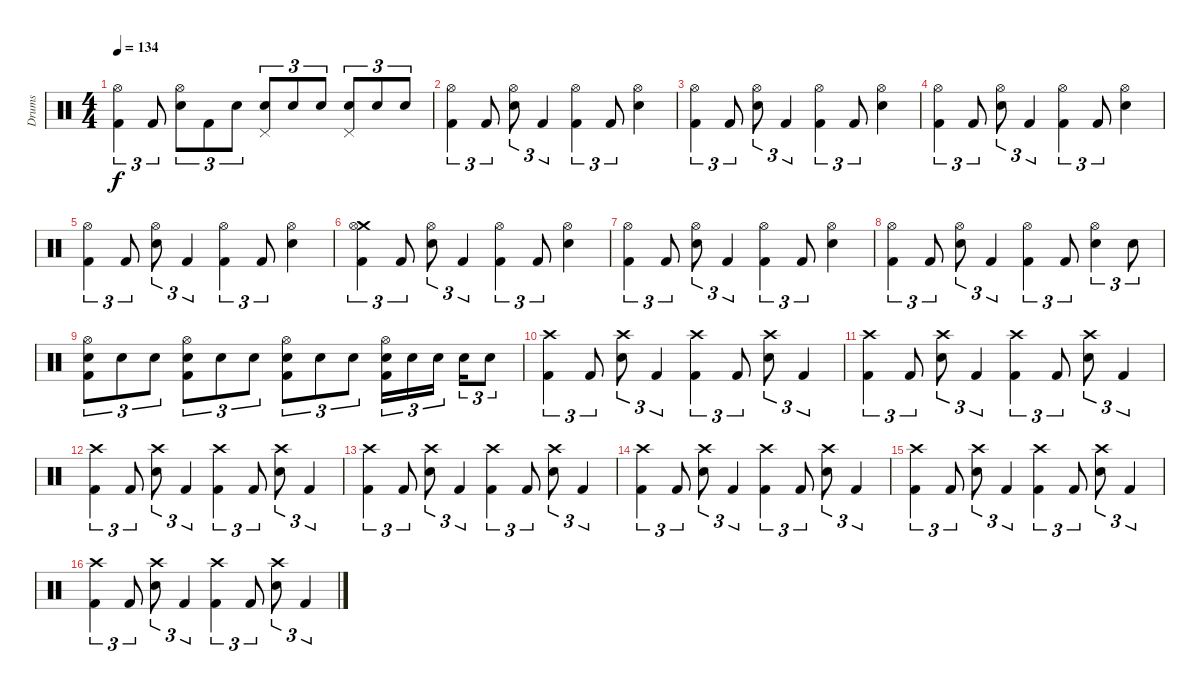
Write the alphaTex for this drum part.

\track ("Drums" "Drums") {instrument percussion}
\staff {score}
\articulation defaults
\ts (4 4)
\tempo 134
\clef neutral
\ks c
("Hi-Hat (open)" "Kick (hit) 2").4{tu (3 2) dy f} "Kick (hit) 2".8{tu (3 2)} ("Hi-Hat (open)" "Electric Snare (hit)").8{tu (3 2)} "Kick (hit) 2".8{tu (3 2)} "Electric Snare (hit)".8{tu (3 2)} ("Pedal Hi-Hat (hit)" "Electric Snare (hit)").8{tu (3 2)} "Electric Snare (hit)".8{tu (3 2)} "Electric Snare (hit)".8{tu (3 2)} ("Pedal Hi-Hat (hit)" "Electric Snare (hit)").8{tu (3 2)} "Electric Snare (hit)".8{tu (3 2)} "Electric Snare (hit)".8{tu (3 2)} |
("Hi-Hat (open)" "Kick (hit) 2").4{tu (3 2)} "Kick (hit) 2".8{tu (3 2)} ("Hi-Hat (open)" "Electric Snare (hit)").8{tu (3 2)} "Kick (hit) 2".4{tu (3 2)} ("Hi-Hat (open)" "Kick (hit) 2").4{tu (3 2)} "Kick (hit) 2".8{tu (3 2)} ("Hi-Hat (open)" "Electric Snare (hit)").4 |
("Hi-Hat (open)" "Kick (hit) 2").4{tu (3 2)} "Kick (hit) 2".8{tu (3 2)} ("Hi-Hat (open)" "Electric Snare (hit)").8{tu (3 2)} "Kick (hit) 2".4{tu (3 2)} ("Hi-Hat (open)" "Kick (hit) 2").4{tu (3 2)} "Kick (hit) 2".8{tu (3 2)} ("Hi-Hat (open)" "Electric Snare (hit)").4 |
("Hi-Hat (open)" "Kick (hit) 2").4{tu (3 2)} "Kick (hit) 2".8{tu (3 2)} ("Hi-Hat (open)" "Electric Snare (hit)").8{tu (3 2)} "Kick (hit) 2".4{tu (3 2)} ("Hi-Hat (open)" "Kick (hit) 2").4{tu (3 2)} "Kick (hit) 2".8{tu (3 2)} ("Hi-Hat (open)" "Electric Snare (hit)").4 |
("Hi-Hat (open)" "Kick (hit) 2").4{tu (3 2)} "Kick (hit) 2".8{tu (3 2)} ("Hi-Hat (open)" "Electric Snare (hit)").8{tu (3 2)} "Kick (hit) 2".4{tu (3 2)} ("Hi-Hat (open)" "Kick (hit) 2").4{tu (3 2)} "Kick (hit) 2".8{tu (3 2)} ("Hi-Hat (open)" "Electric Snare (hit)").4 |
("Crash medium (hit)" "Hi-Hat (open)" "Kick (hit) 2").4{tu (3 2)} "Kick (hit) 2".8{tu (3 2)} ("Hi-Hat (open)" "Electric Snare (hit)").8{tu (3 2)} "Kick (hit) 2".4{tu (3 2)} ("Hi-Hat (open)" "Kick (hit) 2").4{tu (3 2)} "Kick (hit) 2".8{tu (3 2)} ("Hi-Hat (open)" "Electric Snare (hit)").4 |
("Hi-Hat (open)" "Kick (hit) 2").4{tu (3 2)} "Kick (hit) 2".8{tu (3 2)} ("Hi-Hat (open)" "Electric Snare (hit)").8{tu (3 2)} "Kick (hit) 2".4{tu (3 2)} ("Hi-Hat (open)" "Kick (hit) 2").4{tu (3 2)} "Kick (hit) 2".8{tu (3 2)} ("Hi-Hat (open)" "Electric Snare (hit)").4 |
("Hi-Hat (open)" "Kick (hit) 2").4{tu (3 2)} "Kick (hit) 2".8{tu (3 2)} ("Hi-Hat (open)" "Electric Snare (hit)").8{tu (3 2)} "Kick (hit) 2".4{tu (3 2)} ("Hi-Hat (open)" "Kick (hit) 2").4{tu (3 2)} "Kick (hit) 2".8{tu (3 2)} ("Hi-Hat (open)" "Electric Snare (hit)").4{tu (3 2)} "Electric Snare (hit)".8{tu (3 2)} |
("Hi-Hat (open)" "Electric Snare (hit)" "Kick (hit) 2").8{tu (3 2)} "Electric Snare (hit)".8{tu (3 2)} "Electric Snare (hit)".8{tu (3 2)} ("Hi-Hat (open)" "Electric Snare (hit)" "Kick (hit) 2").8{tu (3 2)} "Electric Snare (hit)".8{tu (3 2)} "Electric Snare (hit)".8{tu (3 2)} ("Hi-Hat (open)" "Electric Snare (hit)" "Kick (hit) 2").8{tu (3 2)} "Electric Snare (hit)".8{tu (3 2)} "Electric Snare (hit)".8{tu (3 2)} ("Hi-Hat (open)" "Electric Snare (hit)" "Kick (hit) 2").16{tu (3 2)} "Electric Snare (hit)".16{tu (3 2)} "Electric Snare (hit)".16{tu (3 2)} "Electric Snare (hit)".16{tu (3 2)} "Electric Snare (hit)".8{tu (3 2)} |
("Crash high (hit)" "Kick (hit) 2").4{tu (3 2)} "Kick (hit) 2".8{tu (3 2)} ("Crash high (hit)" "Electric Snare (hit)").8{tu (3 2)} "Kick (hit) 2".4{tu (3 2)} ("Crash high (hit)" "Kick (hit) 2").4{tu (3 2)} "Kick (hit) 2".8{tu (3 2)} ("Crash high (hit)" "Electric Snare (hit)").8{tu (3 2)} "Kick (hit) 2".4{tu (3 2)} |
("Crash high (hit)" "Kick (hit) 2").4{tu (3 2)} "Kick (hit) 2".8{tu (3 2)} ("Crash high (hit)" "Electric Snare (hit)").8{tu (3 2)} "Kick (hit) 2".4{tu (3 2)} ("Crash high (hit)" "Kick (hit) 2").4{tu (3 2)} "Kick (hit) 2".8{tu (3 2)} ("Crash high (hit)" "Electric Snare (hit)").8{tu (3 2)} "Kick (hit) 2".4{tu (3 2)} |
("Crash high (hit)" "Kick (hit) 2").4{tu (3 2)} "Kick (hit) 2".8{tu (3 2)} ("Crash high (hit)" "Electric Snare (hit)").8{tu (3 2)} "Kick (hit) 2".4{tu (3 2)} ("Crash high (hit)" "Kick (hit) 2").4{tu (3 2)} "Kick (hit) 2".8{tu (3 2)} ("Crash high (hit)" "Electric Snare (hit)").8{tu (3 2)} "Kick (hit) 2".4{tu (3 2)} |
("Crash high (hit)" "Kick (hit) 2").4{tu (3 2)} "Kick (hit) 2".8{tu (3 2)} ("Crash high (hit)" "Electric Snare (hit)").8{tu (3 2)} "Kick (hit) 2".4{tu (3 2)} ("Crash high (hit)" "Kick (hit) 2").4{tu (3 2)} "Kick (hit) 2".8{tu (3 2)} ("Crash high (hit)" "Electric Snare (hit)").8{tu (3 2)} "Kick (hit) 2".4{tu (3 2)} |
("Crash high (hit)" "Kick (hit) 2").4{tu (3 2)} "Kick (hit) 2".8{tu (3 2)} ("Crash high (hit)" "Electric Snare (hit)").8{tu (3 2)} "Kick (hit) 2".4{tu (3 2)} ("Crash high (hit)" "Kick (hit) 2").4{tu (3 2)} "Kick (hit) 2".8{tu (3 2)} ("Crash high (hit)" "Electric Snare (hit)").8{tu (3 2)} "Kick (hit) 2".4{tu (3 2)} |
("Crash high (hit)" "Kick (hit) 2").4{tu (3 2)} "Kick (hit) 2".8{tu (3 2)} ("Crash high (hit)" "Electric Snare (hit)").8{tu (3 2)} "Kick (hit) 2".4{tu (3 2)} ("Crash high (hit)" "Kick (hit) 2").4{tu (3 2)} "Kick (hit) 2".8{tu (3 2)} ("Crash high (hit)" "Electric Snare (hit)").8{tu (3 2)} "Kick (hit) 2".4{tu (3 2)} |
("Crash high (hit)" "Kick (hit) 2").4{tu (3 2)} "Kick (hit) 2".8{tu (3 2)} ("Crash high (hit)" "Electric Snare (hit)").8{tu (3 2)} "Kick (hit) 2".4{tu (3 2)} ("Crash high (hit)" "Kick (hit) 2").4{tu (3 2)} "Kick (hit) 2".8{tu (3 2)} ("Crash high (hit)" "Electric Snare (hit)").8{tu (3 2)} "Kick (hit) 2".4{tu (3 2)}
